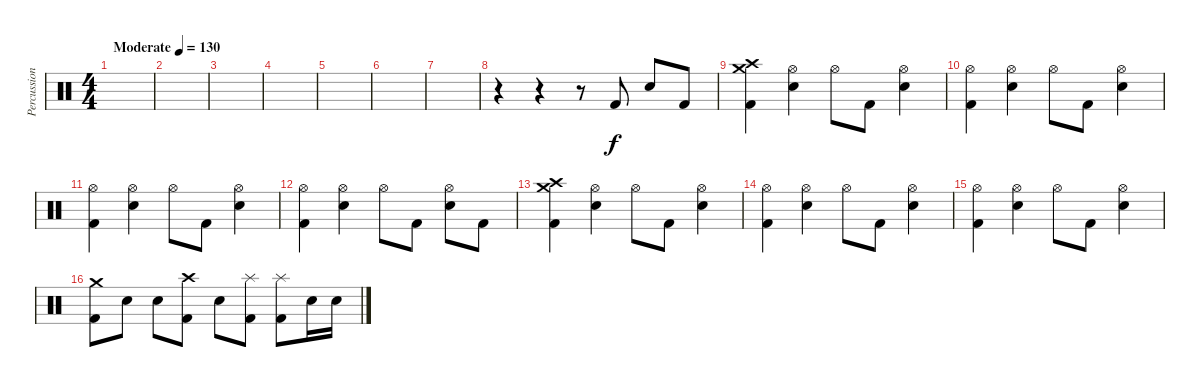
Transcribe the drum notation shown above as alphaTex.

\track ("Percussion" "Percussion") {instrument percussion}
\staff {score}
\articulation defaults
\ts (4 4)
\tempo (130 "Moderate")
\clef neutral
\ks c
|
|
|
|
|
|
|
r.4 r.4 r.8 "Kick (hit) 2".8 "Snare (hit) 2".8 "Kick (hit) 2".8 |
("Crash medium (hit)" "Crash high (hit)" "Kick (hit) 2").4 ("Hi-Hat (open)" "Snare (hit) 2").4 "Hi-Hat (open)".8 "Kick (hit) 2".8 ("Hi-Hat (open)" "Snare (hit) 2").4 |
("Hi-Hat (open)" "Kick (hit) 2").4 ("Hi-Hat (open)" "Snare (hit) 2").4 "Hi-Hat (open)".8 "Kick (hit) 2".8 ("Hi-Hat (open)" "Snare (hit) 2").4 |
("Hi-Hat (open)" "Kick (hit) 2").4 ("Hi-Hat (open)" "Snare (hit) 2").4 "Hi-Hat (open)".8 "Kick (hit) 2".8 ("Hi-Hat (open)" "Snare (hit) 2").4 |
("Hi-Hat (open)" "Kick (hit) 2").4 ("Hi-Hat (open)" "Snare (hit) 2").4 "Hi-Hat (open)".8 "Kick (hit) 2".8 ("Hi-Hat (open)" "Snare (hit) 2").8 "Kick (hit) 2".8 |
("Crash medium (hit)" "Crash high (hit)" "Kick (hit) 2").4 ("Hi-Hat (open)" "Snare (hit) 2").4 "Hi-Hat (open)".8 "Kick (hit) 2".8 ("Hi-Hat (open)" "Snare (hit) 2").4 |
("Hi-Hat (open)" "Kick (hit) 2").4 ("Hi-Hat (open)" "Snare (hit) 2").4 "Hi-Hat (open)".8 "Kick (hit) 2".8 ("Hi-Hat (open)" "Snare (hit) 2").4 |
("Hi-Hat (open)" "Kick (hit) 2").4 ("Hi-Hat (open)" "Snare (hit) 2").4 "Hi-Hat (open)".8 "Kick (hit) 2".8 ("Hi-Hat (open)" "Snare (hit) 2").4 |
("Crash medium (hit)" "Kick (hit) 2").8 "Snare (hit) 2".8 "Snare (hit) 2".8 ("Crash high (hit)" "Kick (hit) 2").8 "Snare (hit) 2".8 ("Splash (hit)" "Kick (hit) 2").8 ("Splash (hit)" "Kick (hit) 2").8 "Snare (hit) 2".16 "Snare (hit) 2".16
